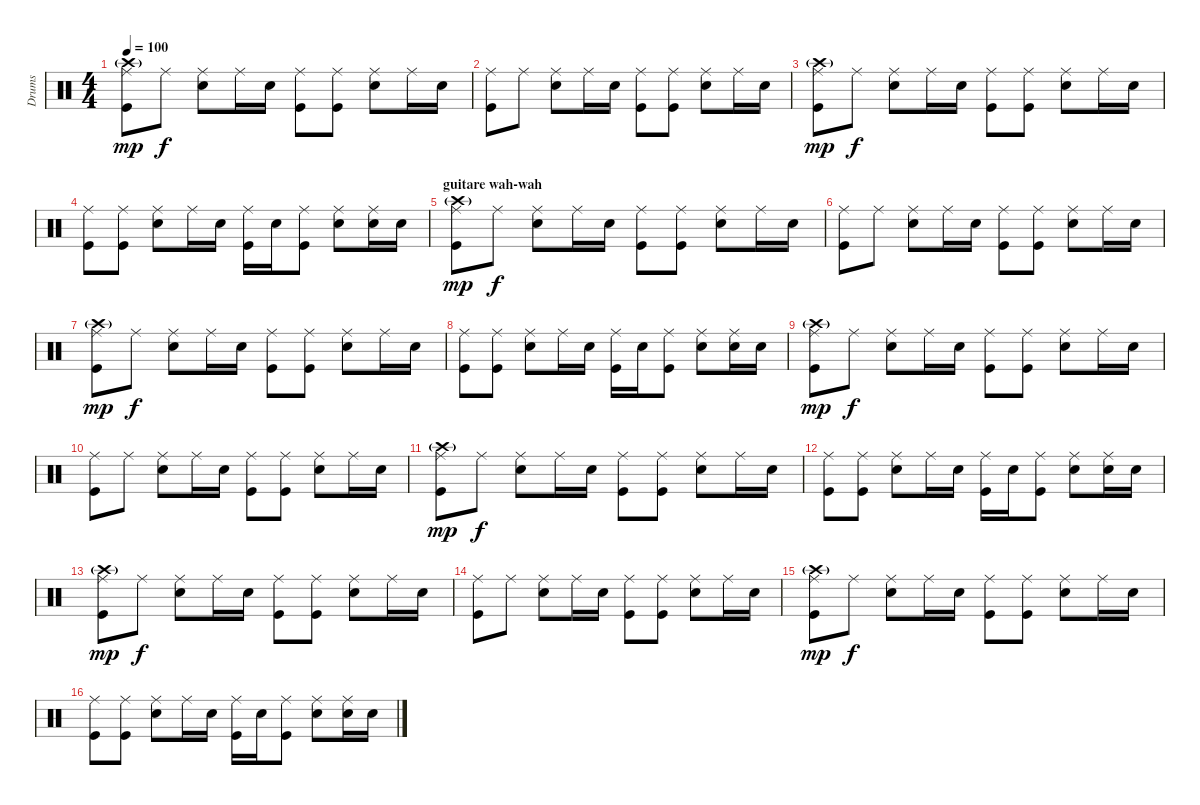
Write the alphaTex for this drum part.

\track ("Drums" "Drums") {instrument percussion}
\staff {score}
\articulation defaults
\ts (4 4)
\tempo 100
\clef neutral
\ks c
("Ride (middle)" "Crash high (hit)"{g} "Kick (hit)").8{dy mp} "Ride (middle)".8{dy f} ("Ride (middle)" "Snare (hit) 2").8 "Ride (middle)".16 "Snare (hit) 2".16 ("Ride (middle)" "Kick (hit)").8 ("Ride (middle)" "Kick (hit)").8 ("Ride (middle)" "Snare (hit) 2").8 "Ride (middle)".16 "Snare (hit) 2".16 |
("Ride (middle)" "Kick (hit)").8 "Ride (middle)".8 ("Ride (middle)" "Snare (hit) 2").8 "Ride (middle)".16 "Snare (hit) 2".16 ("Ride (middle)" "Kick (hit)").8 ("Ride (middle)" "Kick (hit)").8 ("Ride (middle)" "Snare (hit) 2").8 "Ride (middle)".16 "Snare (hit) 2".16 |
("Ride (middle)" "Crash high (hit)"{g} "Kick (hit)").8{dy mp} "Ride (middle)".8{dy f} ("Ride (middle)" "Snare (hit) 2").8 "Ride (middle)".16 "Snare (hit) 2".16 ("Ride (middle)" "Kick (hit)").8 ("Ride (middle)" "Kick (hit)").8 ("Ride (middle)" "Snare (hit) 2").8 "Ride (middle)".16 "Snare (hit) 2".16 |
("Ride (middle)" "Kick (hit)").8 ("Ride (middle)" "Kick (hit)").8 ("Ride (middle)" "Snare (hit) 2").8 "Ride (middle)".16 "Snare (hit) 2".16 ("Ride (middle)" "Kick (hit)").16 "Snare (hit) 2".16 ("Ride (middle)" "Kick (hit)").8 ("Ride (middle)" "Snare (hit) 2").8 ("Ride (middle)" "Snare (hit) 2").16 "Snare (hit) 2".16 |
\section ("" "guitare wah-wah")
("Ride (middle)" "Crash high (hit)"{g} "Kick (hit)").8{dy mp} "Ride (middle)".8{dy f} ("Ride (middle)" "Snare (hit) 2").8 "Ride (middle)".16 "Snare (hit) 2".16 ("Ride (middle)" "Kick (hit)").8 ("Ride (middle)" "Kick (hit)").8 ("Ride (middle)" "Snare (hit) 2").8 "Ride (middle)".16 "Snare (hit) 2".16 |
("Ride (middle)" "Kick (hit)").8 "Ride (middle)".8 ("Ride (middle)" "Snare (hit) 2").8 "Ride (middle)".16 "Snare (hit) 2".16 ("Ride (middle)" "Kick (hit)").8 ("Ride (middle)" "Kick (hit)").8 ("Ride (middle)" "Snare (hit) 2").8 "Ride (middle)".16 "Snare (hit) 2".16 |
("Ride (middle)" "Crash high (hit)"{g} "Kick (hit)").8{dy mp} "Ride (middle)".8{dy f} ("Ride (middle)" "Snare (hit) 2").8 "Ride (middle)".16 "Snare (hit) 2".16 ("Ride (middle)" "Kick (hit)").8 ("Ride (middle)" "Kick (hit)").8 ("Ride (middle)" "Snare (hit) 2").8 "Ride (middle)".16 "Snare (hit) 2".16 |
("Ride (middle)" "Kick (hit)").8 ("Ride (middle)" "Kick (hit)").8 ("Ride (middle)" "Snare (hit) 2").8 "Ride (middle)".16 "Snare (hit) 2".16 ("Ride (middle)" "Kick (hit)").16 "Snare (hit) 2".16 ("Ride (middle)" "Kick (hit)").8 ("Ride (middle)" "Snare (hit) 2").8 ("Ride (middle)" "Snare (hit) 2").16 "Snare (hit) 2".16 |
("Ride (middle)" "Crash high (hit)"{g} "Kick (hit)").8{dy mp} "Ride (middle)".8{dy f} ("Ride (middle)" "Snare (hit) 2").8 "Ride (middle)".16 "Snare (hit) 2".16 ("Ride (middle)" "Kick (hit)").8 ("Ride (middle)" "Kick (hit)").8 ("Ride (middle)" "Snare (hit) 2").8 "Ride (middle)".16 "Snare (hit) 2".16 |
("Ride (middle)" "Kick (hit)").8 "Ride (middle)".8 ("Ride (middle)" "Snare (hit) 2").8 "Ride (middle)".16 "Snare (hit) 2".16 ("Ride (middle)" "Kick (hit)").8 ("Ride (middle)" "Kick (hit)").8 ("Ride (middle)" "Snare (hit) 2").8 "Ride (middle)".16 "Snare (hit) 2".16 |
("Ride (middle)" "Crash high (hit)"{g} "Kick (hit)").8{dy mp} "Ride (middle)".8{dy f} ("Ride (middle)" "Snare (hit) 2").8 "Ride (middle)".16 "Snare (hit) 2".16 ("Ride (middle)" "Kick (hit)").8 ("Ride (middle)" "Kick (hit)").8 ("Ride (middle)" "Snare (hit) 2").8 "Ride (middle)".16 "Snare (hit) 2".16 |
("Ride (middle)" "Kick (hit)").8 ("Ride (middle)" "Kick (hit)").8 ("Ride (middle)" "Snare (hit) 2").8 "Ride (middle)".16 "Snare (hit) 2".16 ("Ride (middle)" "Kick (hit)").16 "Snare (hit) 2".16 ("Ride (middle)" "Kick (hit)").8 ("Ride (middle)" "Snare (hit) 2").8 ("Ride (middle)" "Snare (hit) 2").16 "Snare (hit) 2".16 |
("Ride (middle)" "Crash high (hit)"{g} "Kick (hit)").8{dy mp} "Ride (middle)".8{dy f} ("Ride (middle)" "Snare (hit) 2").8 "Ride (middle)".16 "Snare (hit) 2".16 ("Ride (middle)" "Kick (hit)").8 ("Ride (middle)" "Kick (hit)").8 ("Ride (middle)" "Snare (hit) 2").8 "Ride (middle)".16 "Snare (hit) 2".16 |
("Ride (middle)" "Kick (hit)").8 "Ride (middle)".8 ("Ride (middle)" "Snare (hit) 2").8 "Ride (middle)".16 "Snare (hit) 2".16 ("Ride (middle)" "Kick (hit)").8 ("Ride (middle)" "Kick (hit)").8 ("Ride (middle)" "Snare (hit) 2").8 "Ride (middle)".16 "Snare (hit) 2".16 |
("Ride (middle)" "Crash high (hit)"{g} "Kick (hit)").8{dy mp} "Ride (middle)".8{dy f} ("Ride (middle)" "Snare (hit) 2").8 "Ride (middle)".16 "Snare (hit) 2".16 ("Ride (middle)" "Kick (hit)").8 ("Ride (middle)" "Kick (hit)").8 ("Ride (middle)" "Snare (hit) 2").8 "Ride (middle)".16 "Snare (hit) 2".16 |
("Ride (middle)" "Kick (hit)").8 ("Ride (middle)" "Kick (hit)").8 ("Ride (middle)" "Snare (hit) 2").8 "Ride (middle)".16 "Snare (hit) 2".16 ("Ride (middle)" "Kick (hit)").16 "Snare (hit) 2".16 ("Ride (middle)" "Kick (hit)").8 ("Ride (middle)" "Snare (hit) 2").8 ("Ride (middle)" "Snare (hit) 2").16 "Snare (hit) 2".16
